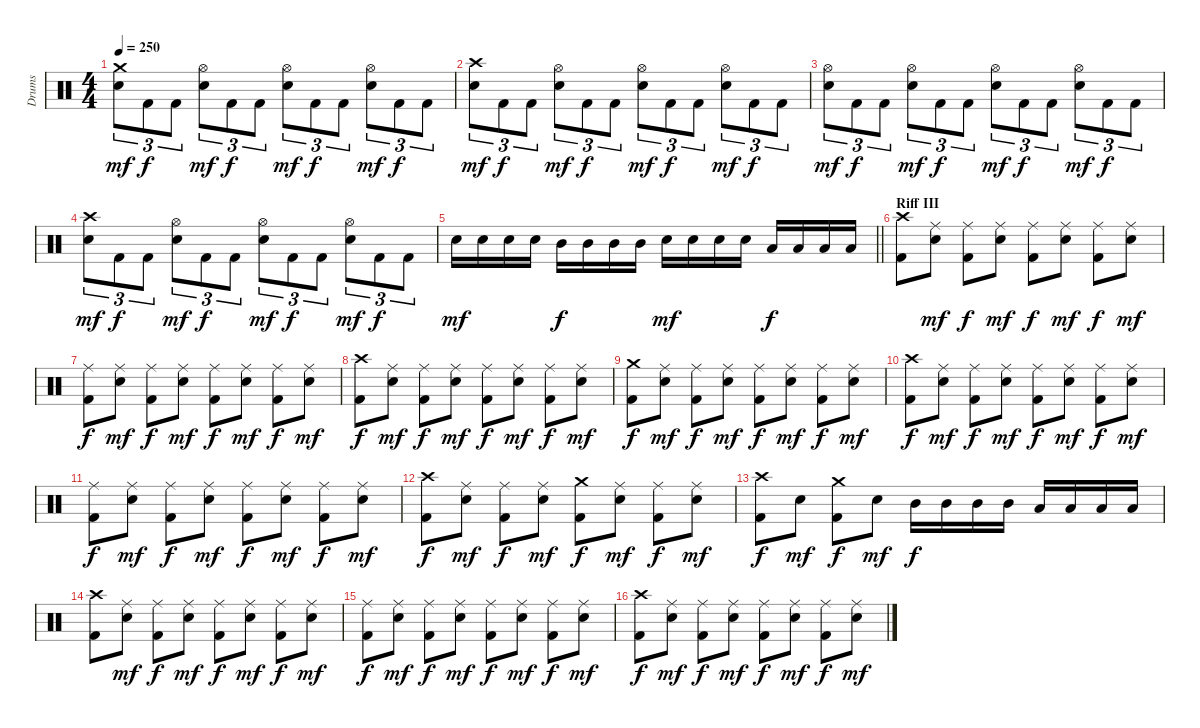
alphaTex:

\track ("Drums" "Drums") {instrument percussion}
\staff {score}
\articulation defaults
\ts (4 4)
\tempo 250
\clef neutral
\ks c
("Crash medium (hit)" "Electric Snare (hit)").8{tu (3 2) dy mf} "Kick (hit) 2".8{tu (3 2) dy f} "Kick (hit) 2".8{tu (3 2)} ("Hi-Hat (open)" "Electric Snare (hit)").8{tu (3 2) dy mf} "Kick (hit) 2".8{tu (3 2) dy f} "Kick (hit) 2".8{tu (3 2)} ("Hi-Hat (open)" "Electric Snare (hit)").8{tu (3 2) dy mf} "Kick (hit) 2".8{tu (3 2) dy f} "Kick (hit) 2".8{tu (3 2)} ("Hi-Hat (open)" "Electric Snare (hit)").8{tu (3 2) dy mf} "Kick (hit) 2".8{tu (3 2) dy f} "Kick (hit) 2".8{tu (3 2)} |
("Crash high (hit)" "Electric Snare (hit)").8{tu (3 2) dy mf} "Kick (hit) 2".8{tu (3 2) dy f} "Kick (hit) 2".8{tu (3 2)} ("Hi-Hat (open)" "Electric Snare (hit)").8{tu (3 2) dy mf} "Kick (hit) 2".8{tu (3 2) dy f} "Kick (hit) 2".8{tu (3 2)} ("Hi-Hat (open)" "Electric Snare (hit)").8{tu (3 2) dy mf} "Kick (hit) 2".8{tu (3 2) dy f} "Kick (hit) 2".8{tu (3 2)} ("Hi-Hat (open)" "Electric Snare (hit)").8{tu (3 2) dy mf} "Kick (hit) 2".8{tu (3 2) dy f} "Kick (hit) 2".8{tu (3 2)} |
("Hi-Hat (open)" "Electric Snare (hit)").8{tu (3 2) dy mf} "Kick (hit) 2".8{tu (3 2) dy f} "Kick (hit) 2".8{tu (3 2)} ("Hi-Hat (open)" "Electric Snare (hit)").8{tu (3 2) dy mf} "Kick (hit) 2".8{tu (3 2) dy f} "Kick (hit) 2".8{tu (3 2)} ("Hi-Hat (open)" "Electric Snare (hit)").8{tu (3 2) dy mf} "Kick (hit) 2".8{tu (3 2) dy f} "Kick (hit) 2".8{tu (3 2)} ("Hi-Hat (open)" "Electric Snare (hit)").8{tu (3 2) dy mf} "Kick (hit) 2".8{tu (3 2) dy f} "Kick (hit) 2".8{tu (3 2)} |
("Crash high (hit)" "Electric Snare (hit)").8{tu (3 2) dy mf} "Kick (hit) 2".8{tu (3 2) dy f} "Kick (hit) 2".8{tu (3 2)} ("Hi-Hat (open)" "Electric Snare (hit)").8{tu (3 2) dy mf} "Kick (hit) 2".8{tu (3 2) dy f} "Kick (hit) 2".8{tu (3 2)} ("Hi-Hat (open)" "Electric Snare (hit)").8{tu (3 2) dy mf} "Kick (hit) 2".8{tu (3 2) dy f} "Kick (hit) 2".8{tu (3 2)} ("Hi-Hat (open)" "Electric Snare (hit)").8{tu (3 2) dy mf} "Kick (hit) 2".8{tu (3 2) dy f} "Kick (hit) 2".8{tu (3 2)} |
\barLineRight lightlight "Electric Snare (hit)".16{dy mf} "Electric Snare (hit)".16 "Electric Snare (hit)".16 "Electric Snare (hit)".16 "Mid Tom (hit)".16{dy f} "Mid Tom (hit)".16 "Mid Tom (hit)".16 "Mid Tom (hit)".16 "Electric Snare (hit)".16{dy mf} "Electric Snare (hit)".16 "Electric Snare (hit)".16 "Electric Snare (hit)".16 "Low Tom (hit)".16{dy f} "Low Tom (hit)".16 "Low Tom (hit)".16 "Low Tom (hit)".16
|
\section ("" "Riff III")
("Crash high (hit)" "Kick (hit) 2").8 ("Ride (middle)" "Electric Snare (hit)").8{dy mf} ("Ride (middle)" "Kick (hit) 2").8{dy f} ("Ride (middle)" "Electric Snare (hit)").8{dy mf} ("Ride (middle)" "Kick (hit) 2").8{dy f} ("Ride (middle)" "Electric Snare (hit)").8{dy mf} ("Ride (middle)" "Kick (hit) 2").8{dy f} ("Ride (middle)" "Electric Snare (hit)").8{dy mf} |
("Ride (middle)" "Kick (hit) 2").8{dy f} ("Ride (middle)" "Electric Snare (hit)").8{dy mf} ("Ride (middle)" "Kick (hit) 2").8{dy f} ("Ride (middle)" "Electric Snare (hit)").8{dy mf} ("Ride (middle)" "Kick (hit) 2").8{dy f} ("Ride (middle)" "Electric Snare (hit)").8{dy mf} ("Ride (middle)" "Kick (hit) 2").8{dy f} ("Ride (middle)" "Electric Snare (hit)").8{dy mf} |
("Crash high (hit)" "Kick (hit) 2").8{dy f} ("Ride (middle)" "Electric Snare (hit)").8{dy mf} ("Ride (middle)" "Kick (hit) 2").8{dy f} ("Ride (middle)" "Electric Snare (hit)").8{dy mf} ("Ride (middle)" "Kick (hit) 2").8{dy f} ("Ride (middle)" "Electric Snare (hit)").8{dy mf} ("Ride (middle)" "Kick (hit) 2").8{dy f} ("Ride (middle)" "Electric Snare (hit)").8{dy mf} |
("Crash medium (hit)" "Kick (hit) 2").8{dy f} ("Ride (middle)" "Electric Snare (hit)").8{dy mf} ("Ride (middle)" "Kick (hit) 2").8{dy f} ("Ride (middle)" "Electric Snare (hit)").8{dy mf} ("Ride (middle)" "Kick (hit) 2").8{dy f} ("Ride (middle)" "Electric Snare (hit)").8{dy mf} ("Ride (middle)" "Kick (hit) 2").8{dy f} ("Ride (middle)" "Electric Snare (hit)").8{dy mf} |
("Crash high (hit)" "Kick (hit) 2").8{dy f} ("Ride (middle)" "Electric Snare (hit)").8{dy mf} ("Ride (middle)" "Kick (hit) 2").8{dy f} ("Ride (middle)" "Electric Snare (hit)").8{dy mf} ("Ride (middle)" "Kick (hit) 2").8{dy f} ("Ride (middle)" "Electric Snare (hit)").8{dy mf} ("Ride (middle)" "Kick (hit) 2").8{dy f} ("Ride (middle)" "Electric Snare (hit)").8{dy mf} |
("Ride (middle)" "Kick (hit) 2").8{dy f} ("Ride (middle)" "Electric Snare (hit)").8{dy mf} ("Ride (middle)" "Kick (hit) 2").8{dy f} ("Ride (middle)" "Electric Snare (hit)").8{dy mf} ("Ride (middle)" "Kick (hit) 2").8{dy f} ("Ride (middle)" "Electric Snare (hit)").8{dy mf} ("Ride (middle)" "Kick (hit) 2").8{dy f} ("Ride (middle)" "Electric Snare (hit)").8{dy mf} |
("Crash high (hit)" "Kick (hit) 2").8{dy f} ("Ride (middle)" "Electric Snare (hit)").8{dy mf} ("Ride (middle)" "Kick (hit) 2").8{dy f} ("Ride (middle)" "Electric Snare (hit)").8{dy mf} ("Crash medium (hit)" "Kick (hit) 2").8{dy f} ("Ride (middle)" "Electric Snare (hit)").8{dy mf} ("Ride (middle)" "Kick (hit) 2").8{dy f} ("Ride (middle)" "Electric Snare (hit)").8{dy mf} |
("Crash high (hit)" "Kick (hit) 2").8{dy f} "Electric Snare (hit)".8{dy mf} ("Crash medium (hit)" "Kick (hit) 2").8{dy f} "Electric Snare (hit)".8{dy mf} "Mid Tom (hit)".16{dy f} "Mid Tom (hit)".16 "Mid Tom (hit)".16 "Mid Tom (hit)".16 "Low Tom (hit)".16 "Low Tom (hit)".16 "Low Tom (hit)".16 "Low Tom (hit)".16 |
("Crash high (hit)" "Kick (hit) 2").8 ("Ride (middle)" "Electric Snare (hit)").8{dy mf} ("Ride (middle)" "Kick (hit) 2").8{dy f} ("Ride (middle)" "Electric Snare (hit)").8{dy mf} ("Ride (middle)" "Kick (hit) 2").8{dy f} ("Ride (middle)" "Electric Snare (hit)").8{dy mf} ("Ride (middle)" "Kick (hit) 2").8{dy f} ("Ride (middle)" "Electric Snare (hit)").8{dy mf} |
("Ride (middle)" "Kick (hit) 2").8{dy f} ("Ride (middle)" "Electric Snare (hit)").8{dy mf} ("Ride (middle)" "Kick (hit) 2").8{dy f} ("Ride (middle)" "Electric Snare (hit)").8{dy mf} ("Ride (middle)" "Kick (hit) 2").8{dy f} ("Ride (middle)" "Electric Snare (hit)").8{dy mf} ("Ride (middle)" "Kick (hit) 2").8{dy f} ("Ride (middle)" "Electric Snare (hit)").8{dy mf} |
("Crash high (hit)" "Kick (hit) 2").8{dy f} ("Ride (middle)" "Electric Snare (hit)").8{dy mf} ("Ride (middle)" "Kick (hit) 2").8{dy f} ("Ride (middle)" "Electric Snare (hit)").8{dy mf} ("Ride (middle)" "Kick (hit) 2").8{dy f} ("Ride (middle)" "Electric Snare (hit)").8{dy mf} ("Ride (middle)" "Kick (hit) 2").8{dy f} ("Ride (middle)" "Electric Snare (hit)").8{dy mf}
